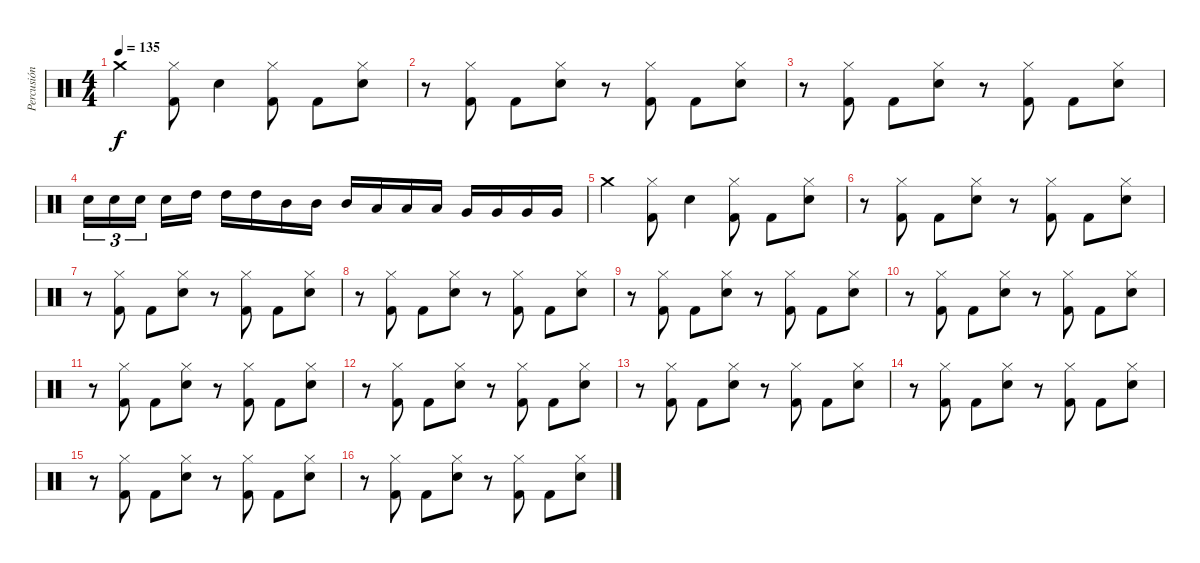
\track ("Percusión" "Percusión") {instrument percussion}
\staff {score}
\articulation defaults
\ts (4 4)
\tempo 135
\clef neutral
\ks c "Crash medium (hit)".4{dy f}
("Hi-Hat (closed)" "Kick (hit) 2").8 "Snare (hit) 2".4 ("Hi-Hat (closed)" "Kick (hit) 2").8 "Kick (hit) 2".8 ("Snare (hit) 2" "Hi-Hat (closed)").8 |
r.8 ("Hi-Hat (closed)" "Kick (hit) 2").8 "Kick (hit) 2".8 ("Snare (hit) 2" "Hi-Hat (closed)").8 r.8 ("Hi-Hat (closed)" "Kick (hit) 2").8 "Kick (hit) 2".8 ("Snare (hit) 2" "Hi-Hat (closed)").8 |
r.8 ("Hi-Hat (closed)" "Kick (hit) 2").8 "Kick (hit) 2".8 ("Snare (hit) 2" "Hi-Hat (closed)").8 r.8 ("Hi-Hat (closed)" "Kick (hit) 2").8 "Kick (hit) 2".8 ("Snare (hit) 2" "Hi-Hat (closed)").8 |
"Electric Snare (hit)".16{tu (3 2)} "Electric Snare (hit)".16{tu (3 2)} "Electric Snare (hit)".16{tu (3 2) beam splitsecondary} "Electric Snare (hit)".16 "High Tom (hit)".16 "High Tom (hit)".16 "High Tom (hit)".16 "Mid Tom (hit)".16 "Mid Tom (hit)".16 "Mid Tom (hit)".16 "Low Tom (hit)".16 "Low Tom (hit)".16 "Low Tom (hit)".16 "Very Low Tom (hit)".16 "Very Low Tom (hit)".16 "Very Low Tom (hit)".16 "Very Low Tom (hit)".16 |
"Crash medium (hit)".4 ("Hi-Hat (closed)" "Kick (hit) 2").8 "Snare (hit) 2".4 ("Hi-Hat (closed)" "Kick (hit) 2").8 "Kick (hit) 2".8 ("Snare (hit) 2" "Hi-Hat (closed)").8 |
r.8 ("Hi-Hat (closed)" "Kick (hit) 2").8 "Kick (hit) 2".8 ("Snare (hit) 2" "Hi-Hat (closed)").8 r.8 ("Hi-Hat (closed)" "Kick (hit) 2").8 "Kick (hit) 2".8 ("Snare (hit) 2" "Hi-Hat (closed)").8 |
r.8 ("Hi-Hat (closed)" "Kick (hit) 2").8 "Kick (hit) 2".8 ("Snare (hit) 2" "Hi-Hat (closed)").8 r.8 ("Hi-Hat (closed)" "Kick (hit) 2").8 "Kick (hit) 2".8 ("Snare (hit) 2" "Hi-Hat (closed)").8 |
r.8 ("Hi-Hat (closed)" "Kick (hit) 2").8 "Kick (hit) 2".8 ("Snare (hit) 2" "Hi-Hat (closed)").8 r.8 ("Hi-Hat (closed)" "Kick (hit) 2").8 "Kick (hit) 2".8 ("Snare (hit) 2" "Hi-Hat (closed)").8 |
r.8 ("Hi-Hat (closed)" "Kick (hit) 2").8 "Kick (hit) 2".8 ("Snare (hit) 2" "Hi-Hat (closed)").8 r.8 ("Hi-Hat (closed)" "Kick (hit) 2").8 "Kick (hit) 2".8 ("Snare (hit) 2" "Hi-Hat (closed)").8 |
r.8 ("Hi-Hat (closed)" "Kick (hit) 2").8 "Kick (hit) 2".8 ("Snare (hit) 2" "Hi-Hat (closed)").8 r.8 ("Hi-Hat (closed)" "Kick (hit) 2").8 "Kick (hit) 2".8 ("Snare (hit) 2" "Hi-Hat (closed)").8 |
r.8 ("Hi-Hat (closed)" "Kick (hit) 2").8 "Kick (hit) 2".8 ("Snare (hit) 2" "Hi-Hat (closed)").8 r.8 ("Hi-Hat (closed)" "Kick (hit) 2").8 "Kick (hit) 2".8 ("Snare (hit) 2" "Hi-Hat (closed)").8 |
r.8 ("Hi-Hat (closed)" "Kick (hit) 2").8 "Kick (hit) 2".8 ("Snare (hit) 2" "Hi-Hat (closed)").8 r.8 ("Hi-Hat (closed)" "Kick (hit) 2").8 "Kick (hit) 2".8 ("Snare (hit) 2" "Hi-Hat (closed)").8 |
r.8 ("Hi-Hat (closed)" "Kick (hit) 2").8 "Kick (hit) 2".8 ("Snare (hit) 2" "Hi-Hat (closed)").8 r.8 ("Hi-Hat (closed)" "Kick (hit) 2").8 "Kick (hit) 2".8 ("Snare (hit) 2" "Hi-Hat (closed)").8 |
r.8 ("Hi-Hat (closed)" "Kick (hit) 2").8 "Kick (hit) 2".8 ("Snare (hit) 2" "Hi-Hat (closed)").8 r.8 ("Hi-Hat (closed)" "Kick (hit) 2").8 "Kick (hit) 2".8 ("Snare (hit) 2" "Hi-Hat (closed)").8 |
r.8 ("Hi-Hat (closed)" "Kick (hit) 2").8 "Kick (hit) 2".8 ("Snare (hit) 2" "Hi-Hat (closed)").8 r.8 ("Hi-Hat (closed)" "Kick (hit) 2").8 "Kick (hit) 2".8 ("Snare (hit) 2" "Hi-Hat (closed)").8 |
r.8 ("Hi-Hat (closed)" "Kick (hit) 2").8 "Kick (hit) 2".8 ("Snare (hit) 2" "Hi-Hat (closed)").8 r.8 ("Hi-Hat (closed)" "Kick (hit) 2").8 "Kick (hit) 2".8 ("Snare (hit) 2" "Hi-Hat (closed)").8
